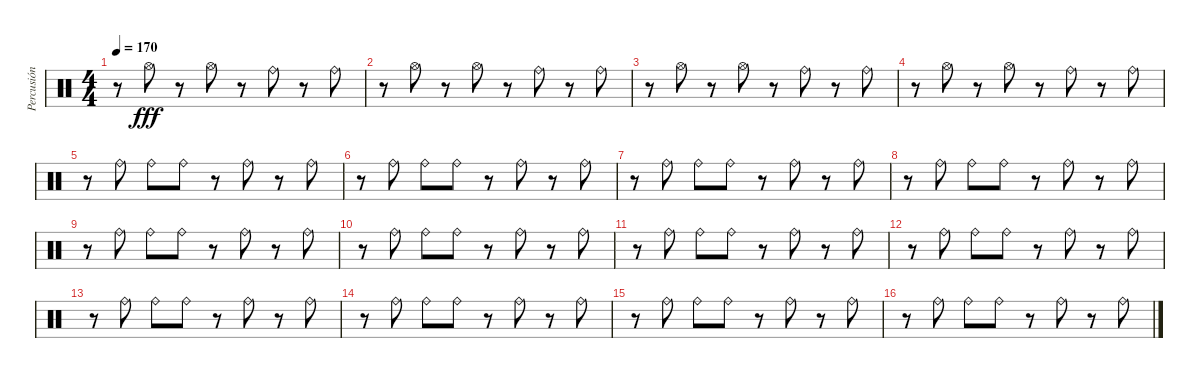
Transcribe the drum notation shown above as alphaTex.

\track ("Percusión" "Percusión") {instrument percussion}
\staff {score}
\articulation defaults
\ts (4 4)
\tempo 170
\clef neutral
\ks c
r.8{dy fff} "Hi-Hat (open)".8 r.8 "Hi-Hat (open)".8 r.8 "Ride (bell)".8 r.8 "Ride (bell)".8 |
r.8 "Hi-Hat (open)".8 r.8 "Hi-Hat (open)".8 r.8 "Ride (bell)".8 r.8 "Ride (bell)".8 |
r.8 "Hi-Hat (open)".8 r.8 "Hi-Hat (open)".8 r.8 "Ride (bell)".8 r.8 "Ride (bell)".8 |
r.8 "Hi-Hat (open)".8 r.8 "Hi-Hat (open)".8 r.8 "Ride (bell)".8 r.8 "Ride (bell)".8 |
r.8 "Ride (bell)".8 "Ride (bell)".8 "Ride (bell)".8 r.8 "Ride (bell)".8 r.8 "Ride (bell)".8 |
r.8 "Ride (bell)".8 "Ride (bell)".8 "Ride (bell)".8 r.8 "Ride (bell)".8 r.8 "Ride (bell)".8 |
r.8 "Ride (bell)".8 "Ride (bell)".8 "Ride (bell)".8 r.8 "Ride (bell)".8 r.8 "Ride (bell)".8 |
r.8 "Ride (bell)".8 "Ride (bell)".8 "Ride (bell)".8 r.8 "Ride (bell)".8 r.8 "Ride (bell)".8 |
r.8 "Ride (bell)".8 "Ride (bell)".8 "Ride (bell)".8 r.8 "Ride (bell)".8 r.8 "Ride (bell)".8 |
r.8 "Ride (bell)".8 "Ride (bell)".8 "Ride (bell)".8 r.8 "Ride (bell)".8 r.8 "Ride (bell)".8 |
r.8 "Ride (bell)".8 "Ride (bell)".8 "Ride (bell)".8 r.8 "Ride (bell)".8 r.8 "Ride (bell)".8 |
r.8 "Ride (bell)".8 "Ride (bell)".8 "Ride (bell)".8 r.8 "Ride (bell)".8 r.8 "Ride (bell)".8 |
r.8 "Ride (bell)".8 "Ride (bell)".8 "Ride (bell)".8 r.8 "Ride (bell)".8 r.8 "Ride (bell)".8 |
r.8 "Ride (bell)".8 "Ride (bell)".8 "Ride (bell)".8 r.8 "Ride (bell)".8 r.8 "Ride (bell)".8 |
r.8 "Ride (bell)".8 "Ride (bell)".8 "Ride (bell)".8 r.8 "Ride (bell)".8 r.8 "Ride (bell)".8 |
r.8 "Ride (bell)".8 "Ride (bell)".8 "Ride (bell)".8 r.8 "Ride (bell)".8 r.8 "Ride (bell)".8
